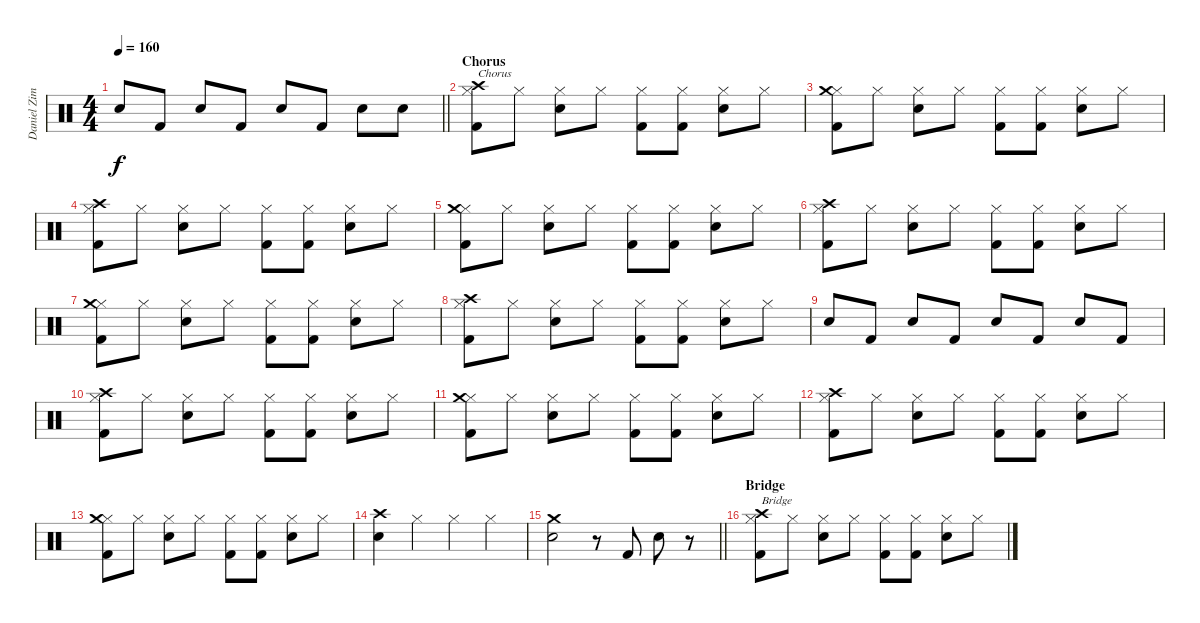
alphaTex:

\track ("Daniel Zimmermann" "Daniel Zim") {instrument percussion}
\staff {score}
\articulation defaults
\ts (4 4)
\tempo 160
\clef neutral
\barLineRight lightlight
\ks c "Snare (hit) 2".8{dy f} "Kick (hit) 2".8 "Snare (hit) 2".8 "Kick (hit) 2".8 "Snare (hit) 2".8 "Kick (hit) 2".8 "Snare (hit) 2".8 "Snare (hit) 2".8
|
\section ("" "Chorus")
("Hi-Hat (closed)" "Kick (hit) 2" "Crash high (hit)").8{txt "Chorus"} "Hi-Hat (closed)".8 ("Hi-Hat (closed)" "Snare (hit) 2").8 "Hi-Hat (closed)".8 ("Hi-Hat (closed)" "Kick (hit) 2").8 ("Hi-Hat (closed)" "Kick (hit) 2").8 ("Hi-Hat (closed)" "Snare (hit) 2").8 "Hi-Hat (closed)".8 |
("Hi-Hat (closed)" "Kick (hit) 2" "Crash medium (hit)").8 "Hi-Hat (closed)".8 ("Hi-Hat (closed)" "Snare (hit) 2").8 "Hi-Hat (closed)".8 ("Hi-Hat (closed)" "Kick (hit) 2").8 ("Hi-Hat (closed)" "Kick (hit) 2").8 ("Hi-Hat (closed)" "Snare (hit) 2").8 "Hi-Hat (closed)".8 |
("Hi-Hat (closed)" "Kick (hit) 2" "Crash high (hit)").8 "Hi-Hat (closed)".8 ("Hi-Hat (closed)" "Snare (hit) 2").8 "Hi-Hat (closed)".8 ("Hi-Hat (closed)" "Kick (hit) 2").8 ("Hi-Hat (closed)" "Kick (hit) 2").8 ("Hi-Hat (closed)" "Snare (hit) 2").8 "Hi-Hat (closed)".8 |
("Hi-Hat (closed)" "Kick (hit) 2" "Crash medium (hit)").8 "Hi-Hat (closed)".8 ("Hi-Hat (closed)" "Snare (hit) 2").8 "Hi-Hat (closed)".8 ("Hi-Hat (closed)" "Kick (hit) 2").8 ("Hi-Hat (closed)" "Kick (hit) 2").8 ("Hi-Hat (closed)" "Snare (hit) 2").8 "Hi-Hat (closed)".8 |
("Hi-Hat (closed)" "Kick (hit) 2" "Crash high (hit)").8 "Hi-Hat (closed)".8 ("Hi-Hat (closed)" "Snare (hit) 2").8 "Hi-Hat (closed)".8 ("Hi-Hat (closed)" "Kick (hit) 2").8 ("Hi-Hat (closed)" "Kick (hit) 2").8 ("Hi-Hat (closed)" "Snare (hit) 2").8 "Hi-Hat (closed)".8 |
("Hi-Hat (closed)" "Kick (hit) 2" "Crash medium (hit)").8 "Hi-Hat (closed)".8 ("Hi-Hat (closed)" "Snare (hit) 2").8 "Hi-Hat (closed)".8 ("Hi-Hat (closed)" "Kick (hit) 2").8 ("Hi-Hat (closed)" "Kick (hit) 2").8 ("Hi-Hat (closed)" "Snare (hit) 2").8 "Hi-Hat (closed)".8 |
("Hi-Hat (closed)" "Kick (hit) 2" "Crash high (hit)").8 "Hi-Hat (closed)".8 ("Hi-Hat (closed)" "Snare (hit) 2").8 "Hi-Hat (closed)".8 ("Hi-Hat (closed)" "Kick (hit) 2").8 ("Hi-Hat (closed)" "Kick (hit) 2").8 ("Hi-Hat (closed)" "Snare (hit) 2").8 "Hi-Hat (closed)".8 |
"Snare (hit) 2".8 "Kick (hit) 2".8 "Snare (hit) 2".8 "Kick (hit) 2".8 "Snare (hit) 2".8 "Kick (hit) 2".8 "Snare (hit) 2".8 "Kick (hit) 2".8 |
("Hi-Hat (closed)" "Kick (hit) 2" "Crash high (hit)").8 "Hi-Hat (closed)".8 ("Hi-Hat (closed)" "Snare (hit) 2").8 "Hi-Hat (closed)".8 ("Hi-Hat (closed)" "Kick (hit) 2").8 ("Hi-Hat (closed)" "Kick (hit) 2").8 ("Hi-Hat (closed)" "Snare (hit) 2").8 "Hi-Hat (closed)".8 |
("Hi-Hat (closed)" "Kick (hit) 2" "Crash medium (hit)").8 "Hi-Hat (closed)".8 ("Hi-Hat (closed)" "Snare (hit) 2").8 "Hi-Hat (closed)".8 ("Hi-Hat (closed)" "Kick (hit) 2").8 ("Hi-Hat (closed)" "Kick (hit) 2").8 ("Hi-Hat (closed)" "Snare (hit) 2").8 "Hi-Hat (closed)".8 |
("Hi-Hat (closed)" "Kick (hit) 2" "Crash high (hit)").8 "Hi-Hat (closed)".8 ("Hi-Hat (closed)" "Snare (hit) 2").8 "Hi-Hat (closed)".8 ("Hi-Hat (closed)" "Kick (hit) 2").8 ("Hi-Hat (closed)" "Kick (hit) 2").8 ("Hi-Hat (closed)" "Snare (hit) 2").8 "Hi-Hat (closed)".8 |
("Hi-Hat (closed)" "Kick (hit) 2" "Crash medium (hit)").8 "Hi-Hat (closed)".8 ("Hi-Hat (closed)" "Snare (hit) 2").8 "Hi-Hat (closed)".8 ("Hi-Hat (closed)" "Kick (hit) 2").8 ("Hi-Hat (closed)" "Kick (hit) 2").8 ("Hi-Hat (closed)" "Snare (hit) 2").8 "Hi-Hat (closed)".8 |
("Snare (hit) 2" "Crash high (hit)").4 "Hi-Hat (closed)".4 "Hi-Hat (closed)".4 "Hi-Hat (closed)".4 |
\barLineRight lightlight
("Snare (hit) 2" "Crash medium (hit)").2 r.8 "Kick (hit) 2".8 "Snare (hit) 2".8 r.8 |
\section ("" "Bridge")
("Hi-Hat (closed)" "Kick (hit) 2" "Crash high (hit)").8{txt "Bridge"} "Hi-Hat (closed)".8 ("Hi-Hat (closed)" "Snare (hit) 2").8 "Hi-Hat (closed)".8 ("Hi-Hat (closed)" "Kick (hit) 2").8 ("Hi-Hat (closed)" "Kick (hit) 2").8 ("Hi-Hat (closed)" "Snare (hit) 2").8 "Hi-Hat (closed)".8
